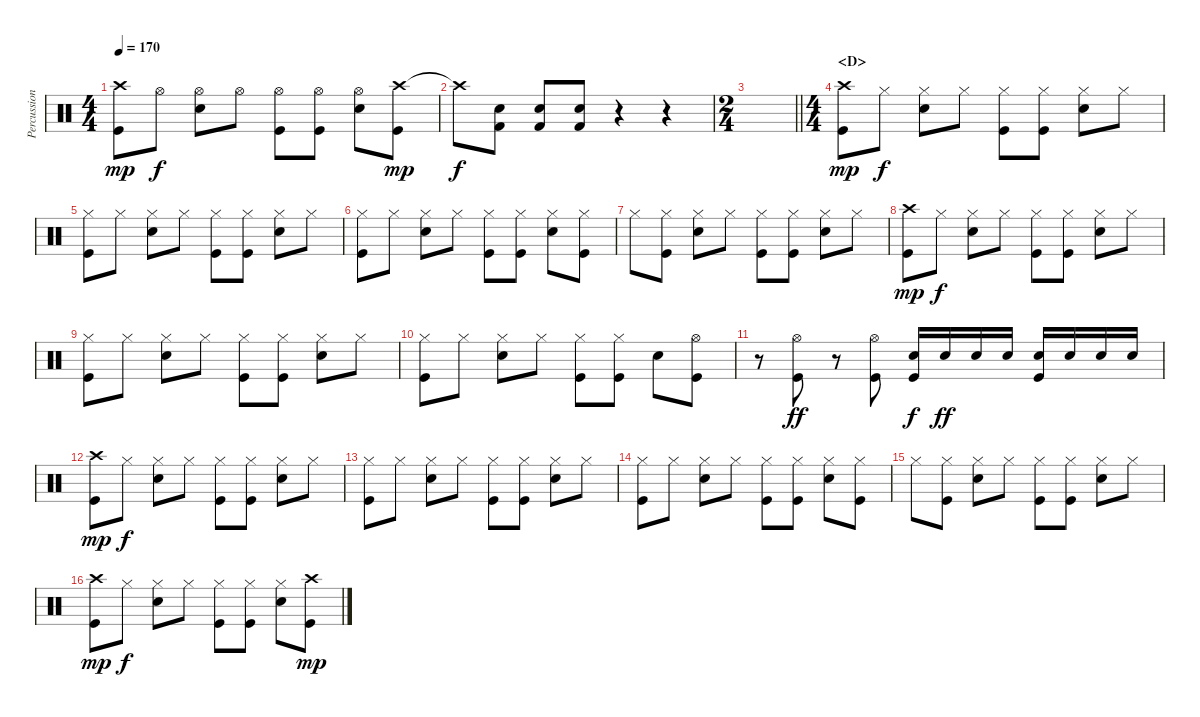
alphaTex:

\track ("Percussion" "Percussion") {instrument percussion}
\staff {score}
\articulation defaults
\ts (4 4)
\tempo 170
\clef neutral
\ks c
("Crash high (hit)" "Kick (hit)").8{dy mp} "Hi-Hat (open)".8{dy f} ("Hi-Hat (open)" "Snare (hit) 2").8 "Hi-Hat (open)".8 ("Hi-Hat (open)" "Kick (hit)").8 ("Hi-Hat (open)" "Kick (hit)").8 ("Hi-Hat (open)" "Snare (hit) 2").8 ("Crash high (hit)" "Kick (hit)").8{dy mp} |
"Crash high (hit)"{t}.8{dy f} ("Snare (hit) 2" "Kick (hit) 2").8 ("Snare (hit) 2" "Kick (hit) 2").8 ("Snare (hit) 2" "Kick (hit) 2").8 r.4 r.4 |
\ts (2 4)
\barLineRight lightlight
|
\ts (4 4)
\section ("" "<D>")
("Crash high (hit)" "Kick (hit)").8{dy mp} "Hi-Hat (closed)".8{dy f} ("Hi-Hat (closed)" "Snare (hit) 2").8 "Hi-Hat (closed)".8 ("Hi-Hat (closed)" "Kick (hit)").8 ("Hi-Hat (closed)" "Kick (hit)").8 ("Hi-Hat (closed)" "Snare (hit) 2").8 "Hi-Hat (closed)".8 |
("Hi-Hat (closed)" "Kick (hit)").8 "Hi-Hat (closed)".8 ("Hi-Hat (closed)" "Snare (hit) 2").8 "Hi-Hat (closed)".8 ("Hi-Hat (closed)" "Kick (hit)").8 ("Hi-Hat (closed)" "Kick (hit)").8 ("Hi-Hat (closed)" "Snare (hit) 2").8 "Hi-Hat (closed)".8 |
("Hi-Hat (closed)" "Kick (hit)").8 "Hi-Hat (closed)".8 ("Hi-Hat (closed)" "Snare (hit) 2").8 "Hi-Hat (closed)".8 ("Hi-Hat (closed)" "Kick (hit)").8 ("Hi-Hat (closed)" "Kick (hit)").8 ("Hi-Hat (closed)" "Snare (hit) 2").8 ("Hi-Hat (closed)" "Kick (hit)").8 |
"Hi-Hat (closed)".8 ("Hi-Hat (closed)" "Kick (hit)").8 ("Hi-Hat (closed)" "Snare (hit) 2").8 "Hi-Hat (closed)".8 ("Hi-Hat (closed)" "Kick (hit)").8 ("Hi-Hat (closed)" "Kick (hit)").8 ("Hi-Hat (closed)" "Snare (hit) 2").8 "Hi-Hat (closed)".8 |
("Crash high (hit)" "Kick (hit)").8{dy mp} "Hi-Hat (closed)".8{dy f} ("Hi-Hat (closed)" "Snare (hit) 2").8 "Hi-Hat (closed)".8 ("Hi-Hat (closed)" "Kick (hit)").8 ("Hi-Hat (closed)" "Kick (hit)").8 ("Hi-Hat (closed)" "Snare (hit) 2").8 "Hi-Hat (closed)".8 |
("Hi-Hat (closed)" "Kick (hit)").8 "Hi-Hat (closed)".8 ("Hi-Hat (closed)" "Snare (hit) 2").8 "Hi-Hat (closed)".8 ("Hi-Hat (closed)" "Kick (hit)").8 ("Hi-Hat (closed)" "Kick (hit)").8 ("Hi-Hat (closed)" "Snare (hit) 2").8 "Hi-Hat (closed)".8 |
("Hi-Hat (closed)" "Kick (hit)").8 "Hi-Hat (closed)".8 ("Hi-Hat (closed)" "Snare (hit) 2").8 "Hi-Hat (closed)".8 ("Hi-Hat (closed)" "Kick (hit)").8 ("Hi-Hat (closed)" "Kick (hit)").8 "Snare (hit) 2".8 ("Hi-Hat (open)" "Kick (hit)").8 |
r.8 ("Hi-Hat (open)" "Kick (hit)").8{dy ff} r.8 ("Hi-Hat (open)" "Kick (hit)").8 ("Kick (hit)" "Snare (hit) 2").16{dy f} "Snare (hit) 2".16{dy ff} "Snare (hit) 2".16 "Snare (hit) 2".16 ("Snare (hit) 2" "Kick (hit)").16 "Snare (hit) 2".16 "Snare (hit) 2".16 "Snare (hit) 2".16 |
("Crash high (hit)" "Kick (hit)").8{dy mp} "Hi-Hat (closed)".8{dy f} ("Hi-Hat (closed)" "Snare (hit) 2").8 "Hi-Hat (closed)".8 ("Hi-Hat (closed)" "Kick (hit)").8 ("Hi-Hat (closed)" "Kick (hit)").8 ("Hi-Hat (closed)" "Snare (hit) 2").8 "Hi-Hat (closed)".8 |
("Hi-Hat (closed)" "Kick (hit)").8 "Hi-Hat (closed)".8 ("Hi-Hat (closed)" "Snare (hit) 2").8 "Hi-Hat (closed)".8 ("Hi-Hat (closed)" "Kick (hit)").8 ("Hi-Hat (closed)" "Kick (hit)").8 ("Hi-Hat (closed)" "Snare (hit) 2").8 "Hi-Hat (closed)".8 |
("Hi-Hat (closed)" "Kick (hit)").8 "Hi-Hat (closed)".8 ("Hi-Hat (closed)" "Snare (hit) 2").8 "Hi-Hat (closed)".8 ("Hi-Hat (closed)" "Kick (hit)").8 ("Hi-Hat (closed)" "Kick (hit)").8 ("Hi-Hat (closed)" "Snare (hit) 2").8 ("Hi-Hat (closed)" "Kick (hit)").8 |
"Hi-Hat (closed)".8 ("Hi-Hat (closed)" "Kick (hit)").8 ("Hi-Hat (closed)" "Snare (hit) 2").8 "Hi-Hat (closed)".8 ("Hi-Hat (closed)" "Kick (hit)").8 ("Hi-Hat (closed)" "Kick (hit)").8 ("Hi-Hat (closed)" "Snare (hit) 2").8 "Hi-Hat (closed)".8 |
("Crash high (hit)" "Kick (hit)").8{dy mp} "Hi-Hat (closed)".8{dy f} ("Hi-Hat (closed)" "Snare (hit) 2").8 "Hi-Hat (closed)".8 ("Hi-Hat (closed)" "Kick (hit)").8 ("Hi-Hat (closed)" "Kick (hit)").8 ("Hi-Hat (closed)" "Snare (hit) 2").8 ("Crash high (hit)" "Kick (hit)").8{dy mp}
